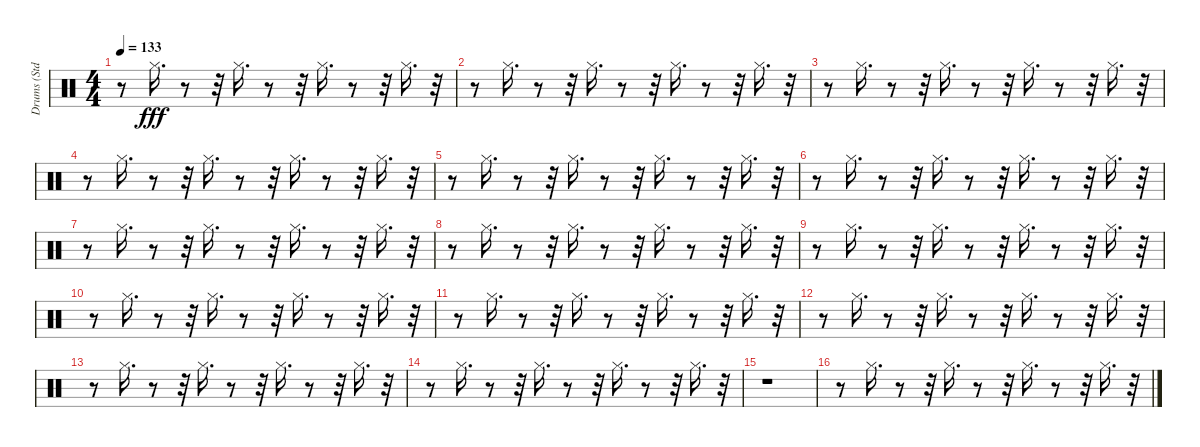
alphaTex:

\track ("Drums (Std.)" "Drums (Std") {instrument percussion}
\staff {score}
\articulation defaults
\ts (4 4)
\tempo 133
\clef neutral
\ks c
r.8{dy fff} "Hi-Hat (closed)".16{d} r.8 r.32 "Hi-Hat (closed)".16{d} r.8 r.32 "Hi-Hat (closed)".16{d} r.8 r.32 "Hi-Hat (closed)".16{d} r.32 |
r.8 "Hi-Hat (closed)".16{d} r.8 r.32 "Hi-Hat (closed)".16{d} r.8 r.32 "Hi-Hat (closed)".16{d} r.8 r.32 "Hi-Hat (closed)".16{d} r.32 |
r.8 "Hi-Hat (closed)".16{d} r.8 r.32 "Hi-Hat (closed)".16{d} r.8 r.32 "Hi-Hat (closed)".16{d} r.8 r.32 "Hi-Hat (closed)".16{d} r.32 |
r.8 "Hi-Hat (closed)".16{d} r.8 r.32 "Hi-Hat (closed)".16{d} r.8 r.32 "Hi-Hat (closed)".16{d} r.8 r.32 "Hi-Hat (closed)".16{d} r.32 |
r.8 "Hi-Hat (closed)".16{d} r.8 r.32 "Hi-Hat (closed)".16{d} r.8 r.32 "Hi-Hat (closed)".16{d} r.8 r.32 "Hi-Hat (closed)".16{d} r.32 |
r.8 "Hi-Hat (closed)".16{d} r.8 r.32 "Hi-Hat (closed)".16{d} r.8 r.32 "Hi-Hat (closed)".16{d} r.8 r.32 "Hi-Hat (closed)".16{d} r.32 |
r.8 "Hi-Hat (closed)".16{d} r.8 r.32 "Hi-Hat (closed)".16{d} r.8 r.32 "Hi-Hat (closed)".16{d} r.8 r.32 "Hi-Hat (closed)".16{d} r.32 |
r.8 "Hi-Hat (closed)".16{d} r.8 r.32 "Hi-Hat (closed)".16{d} r.8 r.32 "Hi-Hat (closed)".16{d} r.8 r.32 "Hi-Hat (closed)".16{d} r.32 |
r.8 "Hi-Hat (closed)".16{d} r.8 r.32 "Hi-Hat (closed)".16{d} r.8 r.32 "Hi-Hat (closed)".16{d} r.8 r.32 "Hi-Hat (closed)".16{d} r.32 |
r.8 "Hi-Hat (closed)".16{d} r.8 r.32 "Hi-Hat (closed)".16{d} r.8 r.32 "Hi-Hat (closed)".16{d} r.8 r.32 "Hi-Hat (closed)".16{d} r.32 |
r.8 "Hi-Hat (closed)".16{d} r.8 r.32 "Hi-Hat (closed)".16{d} r.8 r.32 "Hi-Hat (closed)".16{d} r.8 r.32 "Hi-Hat (closed)".16{d} r.32 |
r.8 "Hi-Hat (closed)".16{d} r.8 r.32 "Hi-Hat (closed)".16{d} r.8 r.32 "Hi-Hat (closed)".16{d} r.8 r.32 "Hi-Hat (closed)".16{d} r.32 |
r.8 "Hi-Hat (closed)".16{d} r.8 r.32 "Hi-Hat (closed)".16{d} r.8 r.32 "Hi-Hat (closed)".16{d} r.8 r.32 "Hi-Hat (closed)".16{d} r.32 |
r.8 "Hi-Hat (closed)".16{d} r.8 r.32 "Hi-Hat (closed)".16{d} r.8 r.32 "Hi-Hat (closed)".16{d} r.8 r.32 "Hi-Hat (closed)".16{d} r.32 |
r.1 |
r.8 "Hi-Hat (closed)".16{d} r.8 r.32 "Hi-Hat (closed)".16{d} r.8 r.32 "Hi-Hat (closed)".16{d} r.8 r.32 "Hi-Hat (closed)".16{d} r.32
